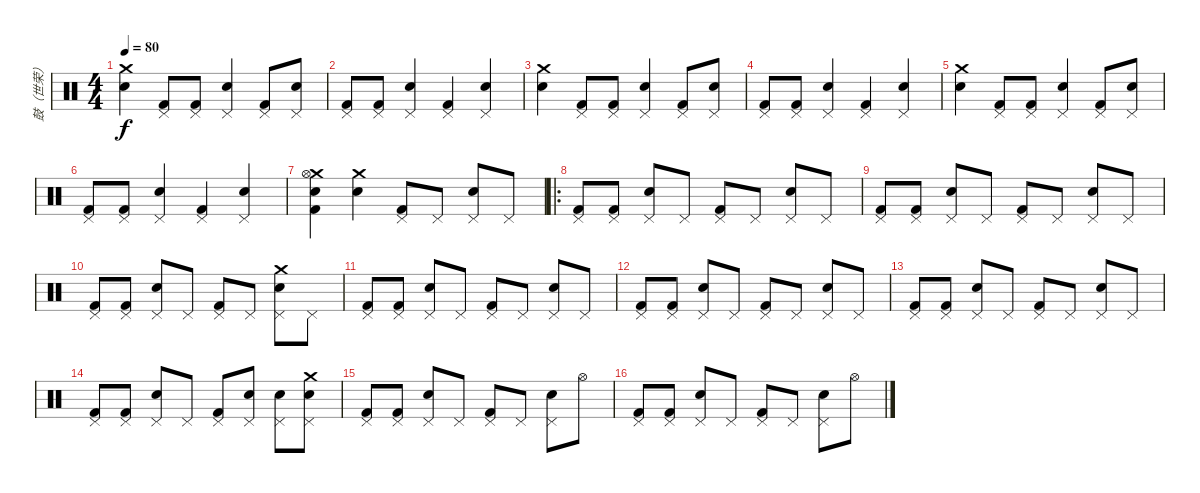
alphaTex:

\track ("鼓（世荣）" "鼓（世荣）") {instrument percussion}
\staff {score}
\articulation defaults
\ts (4 4)
\tempo 80
\clef neutral
\ks c
("Crash medium (hit)" "Snare (hit) 2").4{dy f} ("Pedal Hi-Hat (hit)" "Kick (hit) 2").8 ("Pedal Hi-Hat (hit)" "Kick (hit) 2").8 ("Pedal Hi-Hat (hit)" "Snare (hit) 2").4 ("Pedal Hi-Hat (hit)" "Kick (hit) 2").8 ("Pedal Hi-Hat (hit)" "Snare (hit) 2").8 |
("Pedal Hi-Hat (hit)" "Kick (hit) 2").8 ("Pedal Hi-Hat (hit)" "Kick (hit) 2").8 ("Pedal Hi-Hat (hit)" "Snare (hit) 2").4 ("Pedal Hi-Hat (hit)" "Kick (hit) 2").4 ("Pedal Hi-Hat (hit)" "Snare (hit) 2").4 |
("Crash medium (hit)" "Snare (hit) 2").4 ("Pedal Hi-Hat (hit)" "Kick (hit) 2").8 ("Pedal Hi-Hat (hit)" "Kick (hit) 2").8 ("Pedal Hi-Hat (hit)" "Snare (hit) 2").4 ("Pedal Hi-Hat (hit)" "Kick (hit) 2").8 ("Pedal Hi-Hat (hit)" "Snare (hit) 2").8 |
("Pedal Hi-Hat (hit)" "Kick (hit) 2").8 ("Pedal Hi-Hat (hit)" "Kick (hit) 2").8 ("Pedal Hi-Hat (hit)" "Snare (hit) 2").4 ("Pedal Hi-Hat (hit)" "Kick (hit) 2").4 ("Pedal Hi-Hat (hit)" "Snare (hit) 2").4 |
("Crash medium (hit)" "Snare (hit) 2").4 ("Pedal Hi-Hat (hit)" "Kick (hit) 2").8 ("Pedal Hi-Hat (hit)" "Kick (hit) 2").8 ("Pedal Hi-Hat (hit)" "Snare (hit) 2").4 ("Pedal Hi-Hat (hit)" "Kick (hit) 2").8 ("Pedal Hi-Hat (hit)" "Snare (hit) 2").8 |
("Pedal Hi-Hat (hit)" "Kick (hit) 2").8 ("Pedal Hi-Hat (hit)" "Kick (hit) 2").8 ("Pedal Hi-Hat (hit)" "Snare (hit) 2").4 ("Pedal Hi-Hat (hit)" "Kick (hit) 2").4 ("Pedal Hi-Hat (hit)" "Snare (hit) 2").4 |
("Crash medium (hit)" "Kick (hit) 2" "Snare (hit) 2" "Hi-Hat (open)").4 ("Crash medium (hit)" "Snare (hit) 2").4 ("Pedal Hi-Hat (hit)" "Kick (hit) 2").8 "Pedal Hi-Hat (hit)".8 ("Pedal Hi-Hat (hit)" "Snare (hit) 2").8 "Pedal Hi-Hat (hit)".8 |
\ro
("Pedal Hi-Hat (hit)" "Kick (hit) 2").8 ("Pedal Hi-Hat (hit)" "Kick (hit) 2").8 ("Pedal Hi-Hat (hit)" "Snare (hit) 2").8 "Pedal Hi-Hat (hit)".8 ("Pedal Hi-Hat (hit)" "Kick (hit) 2").8 "Pedal Hi-Hat (hit)".8 ("Pedal Hi-Hat (hit)" "Snare (hit) 2").8 "Pedal Hi-Hat (hit)".8 |
("Pedal Hi-Hat (hit)" "Kick (hit) 2").8 ("Pedal Hi-Hat (hit)" "Kick (hit) 2").8 ("Pedal Hi-Hat (hit)" "Snare (hit) 2").8 "Pedal Hi-Hat (hit)".8 ("Pedal Hi-Hat (hit)" "Kick (hit) 2").8 "Pedal Hi-Hat (hit)".8 ("Pedal Hi-Hat (hit)" "Snare (hit) 2").8 "Pedal Hi-Hat (hit)".8 |
("Pedal Hi-Hat (hit)" "Kick (hit) 2").8 ("Pedal Hi-Hat (hit)" "Kick (hit) 2").8 ("Pedal Hi-Hat (hit)" "Snare (hit) 2").8 "Pedal Hi-Hat (hit)".8 ("Pedal Hi-Hat (hit)" "Kick (hit) 2").8 "Pedal Hi-Hat (hit)".8 ("Pedal Hi-Hat (hit)" "Crash medium (hit)" "Snare (hit) 2").8 "Pedal Hi-Hat (hit)".8 |
("Pedal Hi-Hat (hit)" "Kick (hit) 2").8 ("Pedal Hi-Hat (hit)" "Kick (hit) 2").8 ("Pedal Hi-Hat (hit)" "Snare (hit) 2").8 "Pedal Hi-Hat (hit)".8 ("Pedal Hi-Hat (hit)" "Kick (hit) 2").8 "Pedal Hi-Hat (hit)".8 ("Pedal Hi-Hat (hit)" "Snare (hit) 2").8 "Pedal Hi-Hat (hit)".8 |
("Pedal Hi-Hat (hit)" "Kick (hit) 2").8 ("Pedal Hi-Hat (hit)" "Kick (hit) 2").8 ("Pedal Hi-Hat (hit)" "Snare (hit) 2").8 "Pedal Hi-Hat (hit)".8 ("Pedal Hi-Hat (hit)" "Kick (hit) 2").8 "Pedal Hi-Hat (hit)".8 ("Pedal Hi-Hat (hit)" "Snare (hit) 2").8 "Pedal Hi-Hat (hit)".8 |
("Pedal Hi-Hat (hit)" "Kick (hit) 2").8 ("Pedal Hi-Hat (hit)" "Kick (hit) 2").8 ("Pedal Hi-Hat (hit)" "Snare (hit) 2").8 "Pedal Hi-Hat (hit)".8 ("Pedal Hi-Hat (hit)" "Kick (hit) 2").8 "Pedal Hi-Hat (hit)".8 ("Pedal Hi-Hat (hit)" "Snare (hit) 2").8 "Pedal Hi-Hat (hit)".8 |
("Pedal Hi-Hat (hit)" "Kick (hit) 2").8 ("Pedal Hi-Hat (hit)" "Kick (hit) 2").8 ("Pedal Hi-Hat (hit)" "Snare (hit) 2").8 "Pedal Hi-Hat (hit)".8 ("Pedal Hi-Hat (hit)" "Kick (hit) 2").8 ("Pedal Hi-Hat (hit)" "Snare (hit) 2").8 ("Pedal Hi-Hat (hit)" "Snare (hit) 2").8 ("Pedal Hi-Hat (hit)" "Crash medium (hit)" "Snare (hit) 2").8 |
("Pedal Hi-Hat (hit)" "Kick (hit) 2").8 ("Pedal Hi-Hat (hit)" "Kick (hit) 2").8 ("Pedal Hi-Hat (hit)" "Snare (hit) 2").8 "Pedal Hi-Hat (hit)".8 ("Pedal Hi-Hat (hit)" "Kick (hit) 2").8 "Pedal Hi-Hat (hit)".8 ("Pedal Hi-Hat (hit)" "Snare (hit) 2").8 "Hi-Hat (open)".8 |
("Pedal Hi-Hat (hit)" "Kick (hit) 2").8 ("Pedal Hi-Hat (hit)" "Kick (hit) 2").8 ("Pedal Hi-Hat (hit)" "Snare (hit) 2").8 "Pedal Hi-Hat (hit)".8 ("Pedal Hi-Hat (hit)" "Kick (hit) 2").8 "Pedal Hi-Hat (hit)".8 ("Pedal Hi-Hat (hit)" "Snare (hit) 2").8 "Hi-Hat (open)".8
